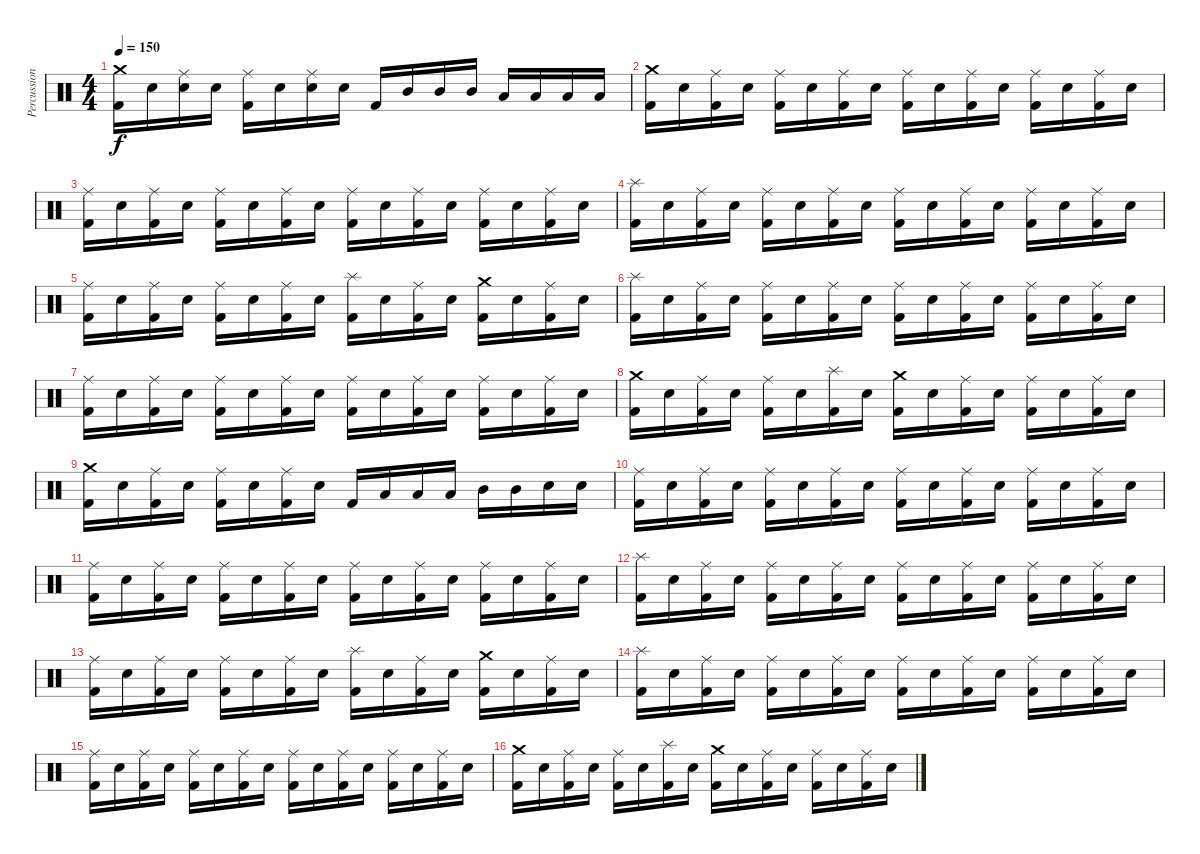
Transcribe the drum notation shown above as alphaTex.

\track ("Percussions" "Percussion") {instrument percussion}
\staff {score}
\articulation defaults
\ts (4 4)
\tempo 150
\clef neutral
\ks c
("Crash medium (hit)" "Kick (hit) 2").16{dy f} "Snare (hit) 2".16 ("Ride (middle)" "Snare (hit) 2").16 "Snare (hit) 2".16 ("Ride (middle)" "Kick (hit) 2").16 "Snare (hit) 2".16 ("Ride (middle)" "Snare (hit) 2").16 "Snare (hit) 2".16 "Kick (hit) 2".16 "Mid Tom (hit)".16 "Mid Tom (hit)".16 "Mid Tom (hit)".16 "Low Tom (hit)".16 "Low Tom (hit)".16 "Low Tom (hit)".16 "Low Tom (hit)".16 |
("Crash medium (hit)" "Kick (hit) 2").16 "Snare (hit) 2".16 ("Ride (middle)" "Kick (hit) 2").16 "Snare (hit) 2".16 ("Ride (middle)" "Kick (hit) 2").16 "Snare (hit) 2".16 ("Ride (middle)" "Kick (hit) 2").16 "Snare (hit) 2".16 ("Ride (middle)" "Kick (hit) 2").16 "Snare (hit) 2".16 ("Ride (middle)" "Kick (hit) 2").16 "Snare (hit) 2".16 ("Ride (middle)" "Kick (hit) 2").16 "Snare (hit) 2".16 ("Ride (middle)" "Kick (hit) 2").16 "Snare (hit) 2".16 |
("Ride (middle)" "Kick (hit) 2").16 "Snare (hit) 2".16 ("Ride (middle)" "Kick (hit) 2").16 "Snare (hit) 2".16 ("Ride (middle)" "Kick (hit) 2").16 "Snare (hit) 2".16 ("Ride (middle)" "Kick (hit) 2").16 "Snare (hit) 2".16 ("Ride (middle)" "Kick (hit) 2").16 "Snare (hit) 2".16 ("Ride (middle)" "Kick (hit) 2").16 "Snare (hit) 2".16 ("Ride (middle)" "Kick (hit) 2").16 "Snare (hit) 2".16 ("Ride (middle)" "Kick (hit) 2").16 "Snare (hit) 2".16 |
("Splash (hit)" "Kick (hit) 2").16 "Snare (hit) 2".16 ("Ride (middle)" "Kick (hit) 2").16 "Snare (hit) 2".16 ("Ride (middle)" "Kick (hit) 2").16 "Snare (hit) 2".16 ("Ride (middle)" "Kick (hit) 2").16 "Snare (hit) 2".16 ("Ride (middle)" "Kick (hit) 2").16 "Snare (hit) 2".16 ("Ride (middle)" "Kick (hit) 2").16 "Snare (hit) 2".16 ("Ride (middle)" "Kick (hit) 2").16 "Snare (hit) 2".16 ("Ride (middle)" "Kick (hit) 2").16 "Snare (hit) 2".16 |
("Ride (middle)" "Kick (hit) 2").16 "Snare (hit) 2".16 ("Ride (middle)" "Kick (hit) 2").16 "Snare (hit) 2".16 ("Ride (middle)" "Kick (hit) 2").16 "Snare (hit) 2".16 ("Ride (middle)" "Kick (hit) 2").16 "Snare (hit) 2".16 ("Splash (hit)" "Kick (hit) 2").16 "Snare (hit) 2".16 ("Ride (middle)" "Kick (hit) 2").16 "Snare (hit) 2".16 ("Crash medium (hit)" "Kick (hit) 2").16 "Snare (hit) 2".16 ("Ride (middle)" "Kick (hit) 2").16 "Snare (hit) 2".16 |
("Splash (hit)" "Kick (hit) 2").16 "Snare (hit) 2".16 ("Ride (middle)" "Kick (hit) 2").16 "Snare (hit) 2".16 ("Ride (middle)" "Kick (hit) 2").16 "Snare (hit) 2".16 ("Ride (middle)" "Kick (hit) 2").16 "Snare (hit) 2".16 ("Ride (middle)" "Kick (hit) 2").16 "Snare (hit) 2".16 ("Ride (middle)" "Kick (hit) 2").16 "Snare (hit) 2".16 ("Ride (middle)" "Kick (hit) 2").16 "Snare (hit) 2".16 ("Ride (middle)" "Kick (hit) 2").16 "Snare (hit) 2".16 |
("Ride (middle)" "Kick (hit) 2").16 "Snare (hit) 2".16 ("Ride (middle)" "Kick (hit) 2").16 "Snare (hit) 2".16 ("Ride (middle)" "Kick (hit) 2").16 "Snare (hit) 2".16 ("Ride (middle)" "Kick (hit) 2").16 "Snare (hit) 2".16 ("Ride (middle)" "Kick (hit) 2").16 "Snare (hit) 2".16 ("Ride (middle)" "Kick (hit) 2").16 "Snare (hit) 2".16 ("Ride (middle)" "Kick (hit) 2").16 "Snare (hit) 2".16 ("Ride (middle)" "Kick (hit) 2").16 "Snare (hit) 2".16 |
("Crash medium (hit)" "Kick (hit) 2").16 "Snare (hit) 2".16 ("Ride (middle)" "Kick (hit) 2").16 "Snare (hit) 2".16 ("Ride (middle)" "Kick (hit) 2").16 "Snare (hit) 2".16 ("Splash (hit)" "Kick (hit) 2").16 "Snare (hit) 2".16 ("Crash medium (hit)" "Kick (hit) 2").16 "Snare (hit) 2".16 ("Ride (middle)" "Kick (hit) 2").16 "Snare (hit) 2".16 ("Ride (middle)" "Kick (hit) 2").16 "Snare (hit) 2".16 ("Ride (middle)" "Kick (hit) 2").16 "Snare (hit) 2".16 |
("Crash medium (hit)" "Kick (hit) 2").16 "Snare (hit) 2".16 ("Ride (middle)" "Kick (hit) 2").16 "Snare (hit) 2".16 ("Ride (middle)" "Kick (hit) 2").16 "Snare (hit) 2".16 ("Ride (middle)" "Kick (hit) 2").16 "Snare (hit) 2".16 "Kick (hit) 2".16 "Low Tom (hit)".16 "Low Tom (hit)".16 "Low Tom (hit)".16 "Mid Tom (hit)".16 "Mid Tom (hit)".16 "Snare (hit) 2".16 "Snare (hit) 2".16 |
("Ride (middle)" "Kick (hit) 2").16 "Snare (hit) 2".16 ("Ride (middle)" "Kick (hit) 2").16 "Snare (hit) 2".16 ("Ride (middle)" "Kick (hit) 2").16 "Snare (hit) 2".16 ("Ride (middle)" "Kick (hit) 2").16 "Snare (hit) 2".16 ("Ride (middle)" "Kick (hit) 2").16 "Snare (hit) 2".16 ("Ride (middle)" "Kick (hit) 2").16 "Snare (hit) 2".16 ("Ride (middle)" "Kick (hit) 2").16 "Snare (hit) 2".16 ("Ride (middle)" "Kick (hit) 2").16 "Snare (hit) 2".16 |
("Ride (middle)" "Kick (hit) 2").16 "Snare (hit) 2".16 ("Ride (middle)" "Kick (hit) 2").16 "Snare (hit) 2".16 ("Ride (middle)" "Kick (hit) 2").16 "Snare (hit) 2".16 ("Ride (middle)" "Kick (hit) 2").16 "Snare (hit) 2".16 ("Ride (middle)" "Kick (hit) 2").16 "Snare (hit) 2".16 ("Ride (middle)" "Kick (hit) 2").16 "Snare (hit) 2".16 ("Ride (middle)" "Kick (hit) 2").16 "Snare (hit) 2".16 ("Ride (middle)" "Kick (hit) 2").16 "Snare (hit) 2".16 |
("Splash (hit)" "Kick (hit) 2").16 "Snare (hit) 2".16 ("Ride (middle)" "Kick (hit) 2").16 "Snare (hit) 2".16 ("Ride (middle)" "Kick (hit) 2").16 "Snare (hit) 2".16 ("Ride (middle)" "Kick (hit) 2").16 "Snare (hit) 2".16 ("Ride (middle)" "Kick (hit) 2").16 "Snare (hit) 2".16 ("Ride (middle)" "Kick (hit) 2").16 "Snare (hit) 2".16 ("Ride (middle)" "Kick (hit) 2").16 "Snare (hit) 2".16 ("Ride (middle)" "Kick (hit) 2").16 "Snare (hit) 2".16 |
("Ride (middle)" "Kick (hit) 2").16 "Snare (hit) 2".16 ("Ride (middle)" "Kick (hit) 2").16 "Snare (hit) 2".16 ("Ride (middle)" "Kick (hit) 2").16 "Snare (hit) 2".16 ("Ride (middle)" "Kick (hit) 2").16 "Snare (hit) 2".16 ("Splash (hit)" "Kick (hit) 2").16 "Snare (hit) 2".16 ("Ride (middle)" "Kick (hit) 2").16 "Snare (hit) 2".16 ("Crash medium (hit)" "Kick (hit) 2").16 "Snare (hit) 2".16 ("Ride (middle)" "Kick (hit) 2").16 "Snare (hit) 2".16 |
("Splash (hit)" "Kick (hit) 2").16 "Snare (hit) 2".16 ("Ride (middle)" "Kick (hit) 2").16 "Snare (hit) 2".16 ("Ride (middle)" "Kick (hit) 2").16 "Snare (hit) 2".16 ("Ride (middle)" "Kick (hit) 2").16 "Snare (hit) 2".16 ("Ride (middle)" "Kick (hit) 2").16 "Snare (hit) 2".16 ("Ride (middle)" "Kick (hit) 2").16 "Snare (hit) 2".16 ("Ride (middle)" "Kick (hit) 2").16 "Snare (hit) 2".16 ("Ride (middle)" "Kick (hit) 2").16 "Snare (hit) 2".16 |
("Ride (middle)" "Kick (hit) 2").16 "Snare (hit) 2".16 ("Ride (middle)" "Kick (hit) 2").16 "Snare (hit) 2".16 ("Ride (middle)" "Kick (hit) 2").16 "Snare (hit) 2".16 ("Ride (middle)" "Kick (hit) 2").16 "Snare (hit) 2".16 ("Ride (middle)" "Kick (hit) 2").16 "Snare (hit) 2".16 ("Ride (middle)" "Kick (hit) 2").16 "Snare (hit) 2".16 ("Ride (middle)" "Kick (hit) 2").16 "Snare (hit) 2".16 ("Ride (middle)" "Kick (hit) 2").16 "Snare (hit) 2".16 |
("Crash medium (hit)" "Kick (hit) 2").16 "Snare (hit) 2".16 ("Ride (middle)" "Kick (hit) 2").16 "Snare (hit) 2".16 ("Ride (middle)" "Kick (hit) 2").16 "Snare (hit) 2".16 ("Splash (hit)" "Kick (hit) 2").16 "Snare (hit) 2".16 ("Crash medium (hit)" "Kick (hit) 2").16 "Snare (hit) 2".16 ("Ride (middle)" "Kick (hit) 2").16 "Snare (hit) 2".16 ("Ride (middle)" "Kick (hit) 2").16 "Snare (hit) 2".16 ("Ride (middle)" "Kick (hit) 2").16 "Snare (hit) 2".16
